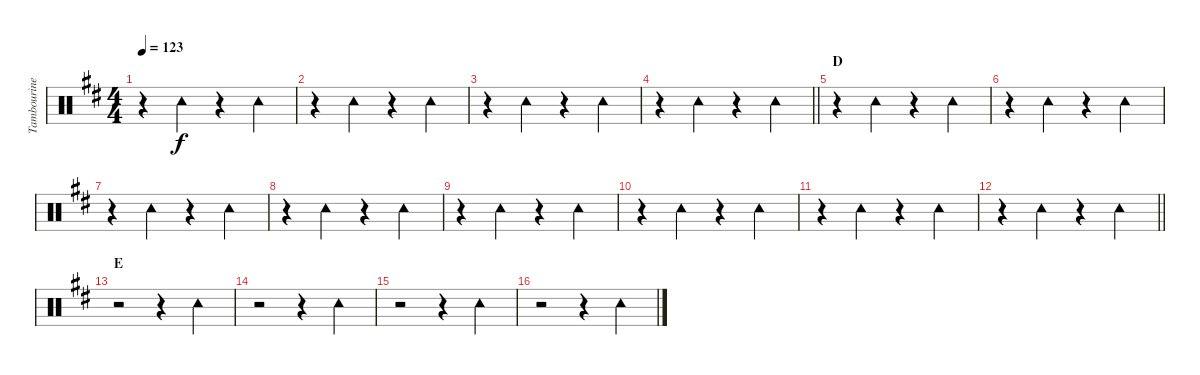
\track ("Tambourine" "Tambourine") {instrument percussion}
\staff {score}
\articulation defaults
\ts (4 4)
\tempo 123
\clef neutral
\ks d
r.4{dy f} "Tambourine (hit)".4 r.4 "Tambourine (hit)".4 |
r.4 "Tambourine (hit)".4 r.4 "Tambourine (hit)".4 |
r.4 "Tambourine (hit)".4 r.4 "Tambourine (hit)".4 |
\barLineRight lightlight
r.4 "Tambourine (hit)".4 r.4 "Tambourine (hit)".4 |
\section ("" "D")
r.4 "Tambourine (hit)".4 r.4 "Tambourine (hit)".4 |
r.4 "Tambourine (hit)".4 r.4 "Tambourine (hit)".4 |
r.4 "Tambourine (hit)".4 r.4 "Tambourine (hit)".4 |
r.4 "Tambourine (hit)".4 r.4 "Tambourine (hit)".4 |
r.4 "Tambourine (hit)".4 r.4 "Tambourine (hit)".4 |
r.4 "Tambourine (hit)".4 r.4 "Tambourine (hit)".4 |
r.4 "Tambourine (hit)".4 r.4 "Tambourine (hit)".4 |
\barLineRight lightlight
r.4 "Tambourine (hit)".4 r.4 "Tambourine (hit)".4 |
\section ("" "E")
r.2 r.4 "Tambourine (hit)".4 |
r.2 r.4 "Tambourine (hit)".4 |
r.2 r.4 "Tambourine (hit)".4 |
r.2 r.4 "Tambourine (hit)".4
